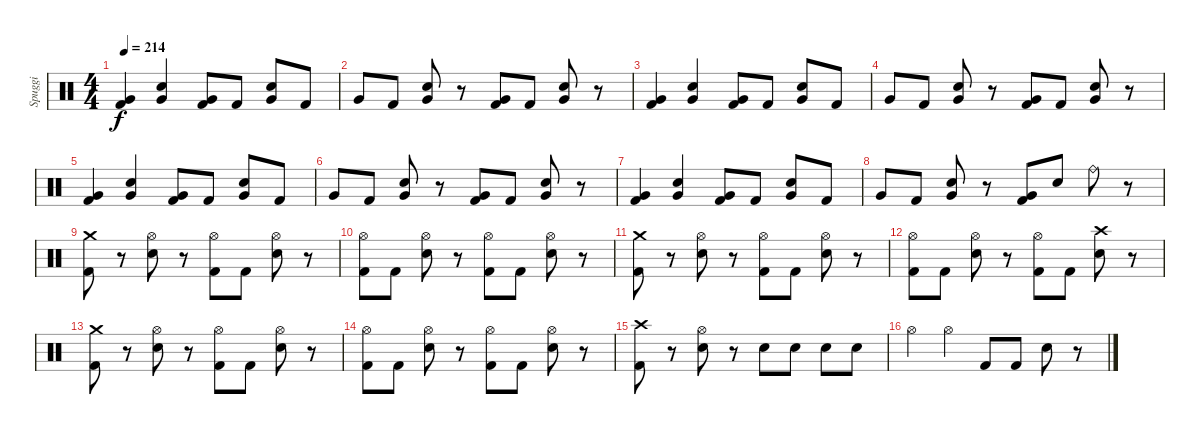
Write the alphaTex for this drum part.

\track ("Spuggi" "Spuggi") {instrument percussion}
\staff {score}
\articulation defaults
\ts (4 4)
\tempo 214
\clef neutral
\ks c
("Very Low Tom (hit)" "Kick (hit) 2").4{dy f} ("Snare (hit) 2" "Very Low Tom (hit)").4 ("Very Low Tom (hit)" "Kick (hit) 2").8 "Kick (hit) 2".8 ("Snare (hit) 2" "Very Low Tom (hit)").8 "Kick (hit) 2".8 |
"Very Low Tom (hit)".8 "Kick (hit) 2".8 ("Snare (hit) 2" "Very Low Tom (hit)").8 r.8 ("Very Low Tom (hit)" "Kick (hit) 2").8 "Kick (hit) 2".8 ("Snare (hit) 2" "Very Low Tom (hit)").8 r.8 |
("Very Low Tom (hit)" "Kick (hit) 2").4 ("Snare (hit) 2" "Very Low Tom (hit)").4 ("Very Low Tom (hit)" "Kick (hit) 2").8 "Kick (hit) 2".8 ("Snare (hit) 2" "Very Low Tom (hit)").8 "Kick (hit) 2".8 |
"Very Low Tom (hit)".8 "Kick (hit) 2".8 ("Snare (hit) 2" "Very Low Tom (hit)").8 r.8 ("Very Low Tom (hit)" "Kick (hit) 2").8 "Kick (hit) 2".8 ("Snare (hit) 2" "Very Low Tom (hit)").8 r.8 |
("Very Low Tom (hit)" "Kick (hit) 2").4 ("Snare (hit) 2" "Very Low Tom (hit)").4 ("Very Low Tom (hit)" "Kick (hit) 2").8 "Kick (hit) 2".8 ("Snare (hit) 2" "Very Low Tom (hit)").8 "Kick (hit) 2".8 |
"Very Low Tom (hit)".8 "Kick (hit) 2".8 ("Snare (hit) 2" "Very Low Tom (hit)").8 r.8 ("Very Low Tom (hit)" "Kick (hit) 2").8 "Kick (hit) 2".8 ("Snare (hit) 2" "Very Low Tom (hit)").8 r.8 |
("Very Low Tom (hit)" "Kick (hit) 2").4 ("Snare (hit) 2" "Very Low Tom (hit)").4 ("Very Low Tom (hit)" "Kick (hit) 2").8 "Kick (hit) 2".8 ("Snare (hit) 2" "Very Low Tom (hit)").8 "Kick (hit) 2".8 |
"Very Low Tom (hit)".8 "Kick (hit) 2".8 ("Snare (hit) 2" "Very Low Tom (hit)").8 r.8 ("Very Low Tom (hit)" "Kick (hit) 2").8 "Snare (hit) 2".8 "Ride (bell)".8 r.8 |
("Crash medium (hit)" "Kick (hit) 2").8 r.8 ("Hi-Hat (open)" "Snare (hit) 2").8 r.8 ("Hi-Hat (open)" "Kick (hit) 2").8 "Kick (hit) 2".8 ("Hi-Hat (open)" "Snare (hit) 2").8 r.8 |
("Hi-Hat (open)" "Kick (hit) 2").8 "Kick (hit) 2".8 ("Hi-Hat (open)" "Snare (hit) 2").8 r.8 ("Hi-Hat (open)" "Kick (hit) 2").8 "Kick (hit) 2".8 ("Hi-Hat (open)" "Snare (hit) 2").8 r.8 |
("Crash medium (hit)" "Kick (hit) 2").8 r.8 ("Hi-Hat (open)" "Snare (hit) 2").8 r.8 ("Hi-Hat (open)" "Kick (hit) 2").8 "Kick (hit) 2".8 ("Hi-Hat (open)" "Snare (hit) 2").8 r.8 |
("Hi-Hat (open)" "Kick (hit) 2").8 "Kick (hit) 2".8 ("Hi-Hat (open)" "Snare (hit) 2").8 r.8 ("Hi-Hat (open)" "Kick (hit) 2").8 "Kick (hit) 2".8 ("Crash high (hit)" "Snare (hit) 2").8 r.8 |
("Crash medium (hit)" "Kick (hit) 2").8 r.8 ("Hi-Hat (open)" "Snare (hit) 2").8 r.8 ("Hi-Hat (open)" "Kick (hit) 2").8 "Kick (hit) 2".8 ("Hi-Hat (open)" "Snare (hit) 2").8 r.8 |
("Hi-Hat (open)" "Kick (hit) 2").8 "Kick (hit) 2".8 ("Hi-Hat (open)" "Snare (hit) 2").8 r.8 ("Hi-Hat (open)" "Kick (hit) 2").8 "Kick (hit) 2".8 ("Hi-Hat (open)" "Snare (hit) 2").8 r.8 |
("Crash high (hit)" "Kick (hit) 2").8 r.8 ("Hi-Hat (open)" "Snare (hit) 2").8 r.8 "Snare (hit) 2".8 "Snare (hit) 2".8 "Snare (hit) 2".8 "Snare (hit) 2".8 |
"Hi-Hat (open)".4 "Hi-Hat (open)".4 "Kick (hit) 2".8 "Kick (hit) 2".8 "Snare (hit) 2".8 r.8
